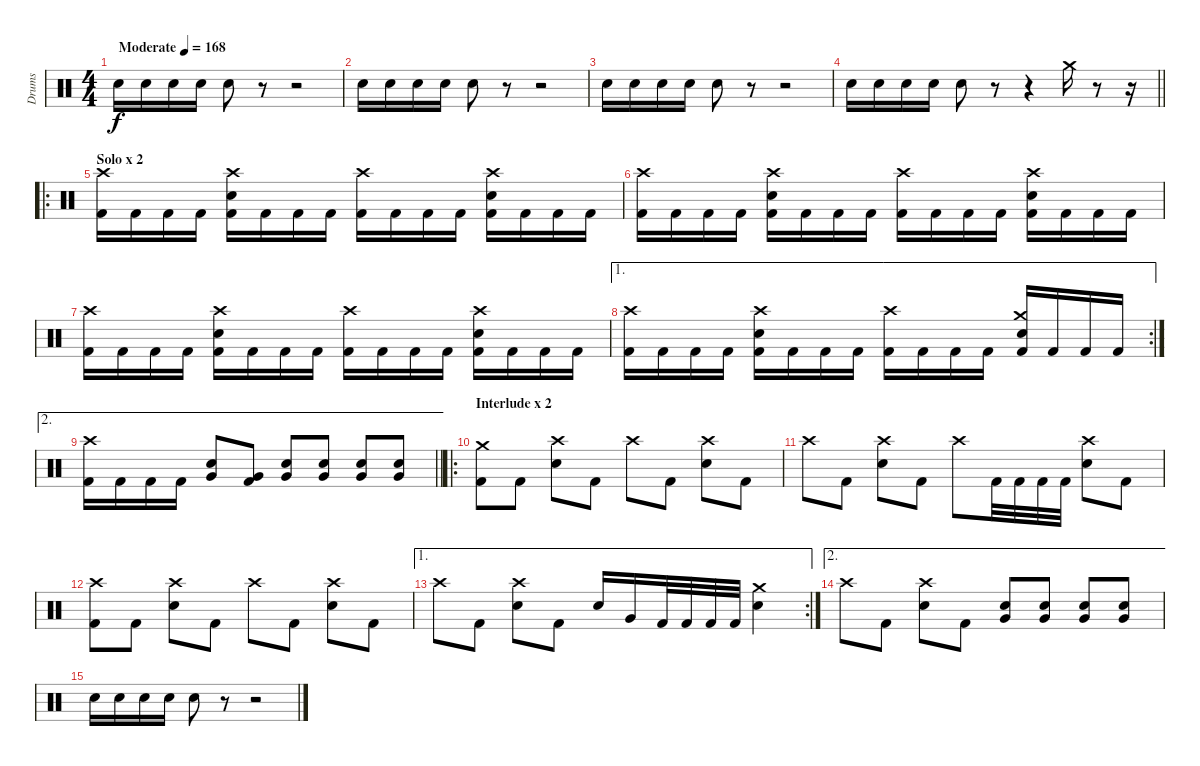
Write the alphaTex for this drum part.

\track ("Drums" "Drums") {instrument percussion}
\staff {score}
\articulation defaults
\ts (4 4)
\tempo (168 "Moderate")
\clef neutral
\ks c "Snare (hit) 2".16{dy f} "Snare (hit) 2".16 "Snare (hit) 2".16 "Snare (hit) 2".16 "Snare (hit) 2".8
r.8 r.2 |
"Snare (hit) 2".16 "Snare (hit) 2".16 "Snare (hit) 2".16 "Snare (hit) 2".16 "Snare (hit) 2".8 r.8 r.2 |
"Snare (hit) 2".16 "Snare (hit) 2".16 "Snare (hit) 2".16 "Snare (hit) 2".16 "Snare (hit) 2".8 r.8 r.2 |
\barLineRight lightlight "Snare (hit) 2".16 "Snare (hit) 2".16 "Snare (hit) 2".16 "Snare (hit) 2".16 "Snare (hit) 2".8
r.8 r.4 "Crash medium (hit)".16 r.8 r.16 |
\ro
\section ("" "Solo x 2")
("Kick (hit) 2" "Crash high (hit)").16 "Kick (hit) 2".16 "Kick (hit) 2".16 "Kick (hit) 2".16 ("Kick (hit) 2" "Crash high (hit)" "Snare (hit) 2").16 "Kick (hit) 2".16 "Kick (hit) 2".16 "Kick (hit) 2".16 ("Kick (hit) 2" "Crash high (hit)").16 "Kick (hit) 2".16 "Kick (hit) 2".16 "Kick (hit) 2".16 ("Kick (hit) 2" "Crash high (hit)" "Snare (hit) 2").16 "Kick (hit) 2".16 "Kick (hit) 2".16 "Kick (hit) 2".16 |
("Kick (hit) 2" "Crash high (hit)").16 "Kick (hit) 2".16 "Kick (hit) 2".16 "Kick (hit) 2".16 ("Kick (hit) 2" "Crash high (hit)" "Snare (hit) 2").16 "Kick (hit) 2".16 "Kick (hit) 2".16 "Kick (hit) 2".16 ("Kick (hit) 2" "Crash high (hit)").16 "Kick (hit) 2".16 "Kick (hit) 2".16 "Kick (hit) 2".16 ("Kick (hit) 2" "Crash high (hit)" "Snare (hit) 2").16 "Kick (hit) 2".16 "Kick (hit) 2".16 "Kick (hit) 2".16 |
("Kick (hit) 2" "Crash high (hit)").16 "Kick (hit) 2".16 "Kick (hit) 2".16 "Kick (hit) 2".16 ("Kick (hit) 2" "Crash high (hit)" "Snare (hit) 2").16 "Kick (hit) 2".16 "Kick (hit) 2".16 "Kick (hit) 2".16 ("Kick (hit) 2" "Crash high (hit)").16 "Kick (hit) 2".16 "Kick (hit) 2".16 "Kick (hit) 2".16 ("Kick (hit) 2" "Crash high (hit)" "Snare (hit) 2").16 "Kick (hit) 2".16 "Kick (hit) 2".16 "Kick (hit) 2".16 |
\ae 1
\rc 2
("Kick (hit) 2" "Crash high (hit)").16 "Kick (hit) 2".16 "Kick (hit) 2".16 "Kick (hit) 2".16 ("Kick (hit) 2" "Crash high (hit)" "Snare (hit) 2").16 "Kick (hit) 2".16 "Kick (hit) 2".16 "Kick (hit) 2".16 ("Kick (hit) 2" "Crash high (hit)").16 "Kick (hit) 2".16 "Kick (hit) 2".16 "Kick (hit) 2".16 ("Kick (hit) 2" "Crash medium (hit)" "Snare (hit) 2").16 "Kick (hit) 2".16 "Kick (hit) 2".16 "Kick (hit) 2".16 |
\ae 2
\barLineRight lightlight
("Kick (hit) 2" "Crash high (hit)").16 "Kick (hit) 2".16 "Kick (hit) 2".16 "Kick (hit) 2".16 ("Very Low Tom (hit)" "Snare (hit) 2").8 ("Kick (hit) 2" "Very Low Tom (hit)").8 ("Very Low Tom (hit)" "Snare (hit) 2").8 ("Very Low Tom (hit)" "Snare (hit) 2").8 ("Very Low Tom (hit)" "Snare (hit) 2").8 ("Very Low Tom (hit)" "Snare (hit) 2").8 |
\ro
\section ("" "Interlude x 2")
("Kick (hit) 2" "Crash medium (hit)").8 "Kick (hit) 2".8 ("Crash high (hit)" "Snare (hit) 2").8 "Kick (hit) 2".8 "Crash high (hit)".8 "Kick (hit) 2".8 ("Crash high (hit)" "Snare (hit) 2").8 "Kick (hit) 2".8 |
"Crash high (hit)".8 "Kick (hit) 2".8 ("Crash high (hit)" "Snare (hit) 2").8 "Kick (hit) 2".8 "Crash high (hit)".8 "Kick (hit) 2".32 "Kick (hit) 2".32 "Kick (hit) 2".32 "Kick (hit) 2".32 ("Crash high (hit)" "Snare (hit) 2").8 "Kick (hit) 2".8 |
("Kick (hit) 2" "Crash high (hit)").8 "Kick (hit) 2".8 ("Crash high (hit)" "Snare (hit) 2").8 "Kick (hit) 2".8 "Crash high (hit)".8 "Kick (hit) 2".8 ("Crash high (hit)" "Snare (hit) 2").8 "Kick (hit) 2".8 |
\ae 1
\rc 2 "Crash high (hit)".8 "Kick (hit) 2".8
("Crash high (hit)" "Snare (hit) 2").8 "Kick (hit) 2".8 "Snare (hit) 2".16 "Very Low Tom (hit)".16 "Kick (hit) 2".32 "Kick (hit) 2".32 "Kick (hit) 2".32 "Kick (hit) 2".32 ("Crash medium (hit)" "Snare (hit) 2").4 |
\ae 2 "Crash high (hit)".8 "Kick (hit) 2".8
("Crash high (hit)" "Snare (hit) 2").8 "Kick (hit) 2".8 ("Very Low Tom (hit)" "Snare (hit) 2").8 ("Very Low Tom (hit)" "Snare (hit) 2").8 ("Very Low Tom (hit)" "Snare (hit) 2").8 ("Very Low Tom (hit)" "Snare (hit) 2").8 |
"Snare (hit) 2".16 "Snare (hit) 2".16 "Snare (hit) 2".16 "Snare (hit) 2".16 "Snare (hit) 2".8 r.8 r.2
